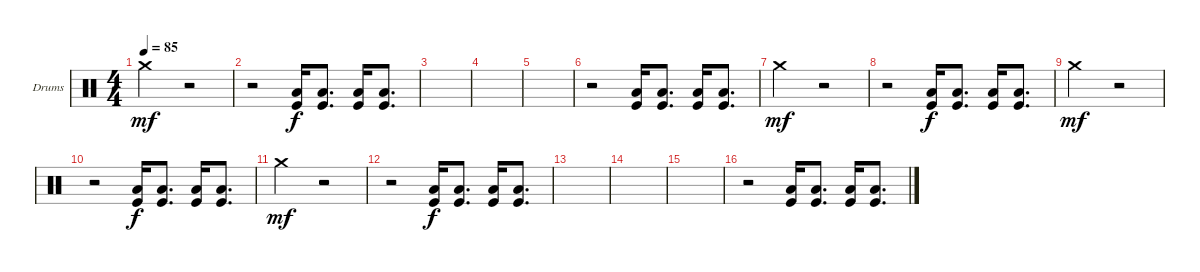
\defaultSystemsLayout 4
\bracketExtendMode groupsimilarinstruments
\firstSystemTrackNameOrientation horizontal
\otherSystemsTrackNameOrientation horizontal
\track ("Drumkit" "Drums") {instrument percussion}
\staff {score}
\articulation defaults
\ts (4 4)
\tempo 85
\clef neutral
\ks c "Crash medium (hit)".2{dy mf}
r.2 |
r.2 ("Low Tom (hit)" "Kick (hit)").16{dy f} ("Low Tom (hit)" "Kick (hit)").8{d} ("Low Tom (hit)" "Kick (hit)").16 ("Low Tom (hit)" "Kick (hit)").8{d} |
|
|
|
r.2 ("Low Tom (hit)" "Kick (hit)").16 ("Low Tom (hit)" "Kick (hit)").8{d} ("Low Tom (hit)" "Kick (hit)").16 ("Low Tom (hit)" "Kick (hit)").8{d} |
"Crash medium (hit)".2{dy mf} r.2 |
r.2 ("Low Tom (hit)" "Kick (hit)").16{dy f} ("Low Tom (hit)" "Kick (hit)").8{d} ("Low Tom (hit)" "Kick (hit)").16 ("Low Tom (hit)" "Kick (hit)").8{d} |
"Crash medium (hit)".2{dy mf} r.2 |
r.2 ("Low Tom (hit)" "Kick (hit)").16{dy f} ("Low Tom (hit)" "Kick (hit)").8{d} ("Low Tom (hit)" "Kick (hit)").16 ("Low Tom (hit)" "Kick (hit)").8{d} |
"Crash medium (hit)".2{dy mf} r.2 |
r.2 ("Low Tom (hit)" "Kick (hit)").16{dy f} ("Low Tom (hit)" "Kick (hit)").8{d} ("Low Tom (hit)" "Kick (hit)").16 ("Low Tom (hit)" "Kick (hit)").8{d} |
|
|
|
r.2 ("Low Tom (hit)" "Kick (hit)").16 ("Low Tom (hit)" "Kick (hit)").8{d} ("Low Tom (hit)" "Kick (hit)").16 ("Low Tom (hit)" "Kick (hit)").8{d}
